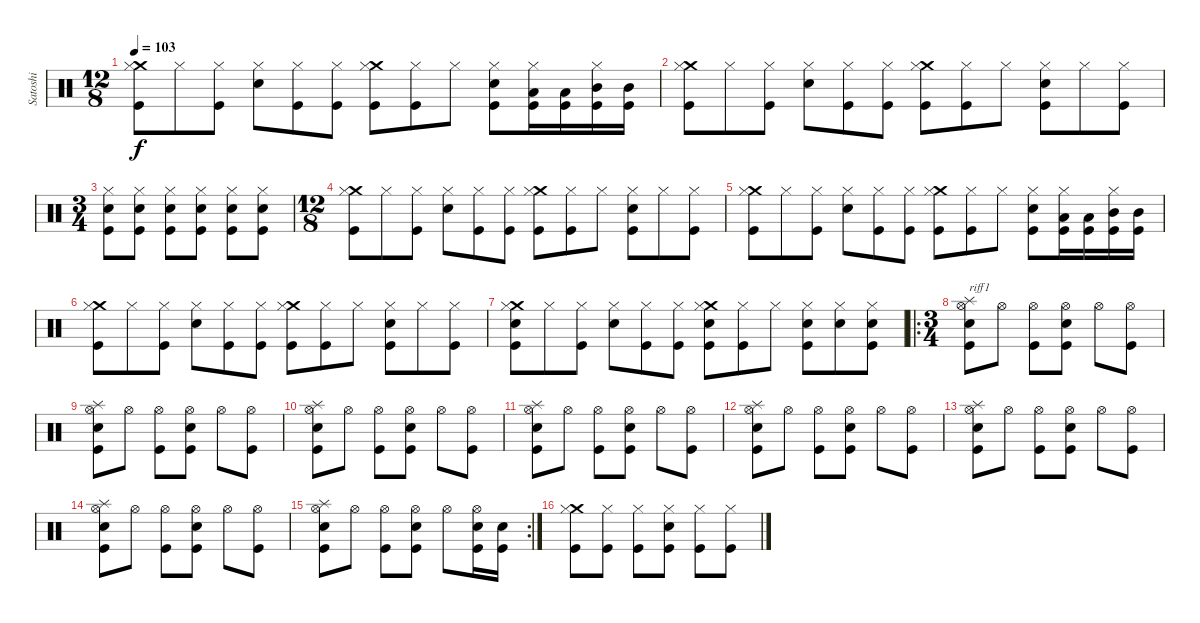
\track ("Satoshi" "Satoshi") {instrument percussion}
\staff {score}
\articulation defaults
\ts (12 8)
\tempo 103
\clef neutral
\ks c
("Crash medium (hit)" "Hi-Hat (closed)" "Kick (hit)").8{dy f} "Hi-Hat (closed)".8 ("Hi-Hat (closed)" "Kick (hit)").8 ("Hi-Hat (closed)" "Electric Snare (hit)").8 ("Hi-Hat (closed)" "Kick (hit)").8 ("Hi-Hat (closed)" "Kick (hit)").8 ("Crash medium (hit)" "Hi-Hat (closed)" "Kick (hit)").8 ("Hi-Hat (closed)" "Kick (hit)").8 "Hi-Hat (closed)".8 ("Hi-Hat (closed)" "Electric Snare (hit)" "Kick (hit)").8 ("Hi-Hat (closed)" "Low Tom (hit)" "Kick (hit)").16 ("Low Tom (hit)" "Kick (hit)").16 ("Hi-Hat (closed)" "Mid Tom (hit)" "Kick (hit)").16 ("Mid Tom (hit)" "Kick (hit)").16 |
("Crash medium (hit)" "Hi-Hat (closed)" "Kick (hit)").8 "Hi-Hat (closed)".8 ("Hi-Hat (closed)" "Kick (hit)").8 ("Hi-Hat (closed)" "Electric Snare (hit)").8 ("Hi-Hat (closed)" "Kick (hit)").8 ("Hi-Hat (closed)" "Kick (hit)").8 ("Crash medium (hit)" "Hi-Hat (closed)" "Kick (hit)").8 ("Hi-Hat (closed)" "Kick (hit)").8 "Hi-Hat (closed)".8 ("Hi-Hat (closed)" "Electric Snare (hit)" "Kick (hit)").8 "Hi-Hat (closed)".8 ("Hi-Hat (closed)" "Kick (hit)").8 |
\ts (3 4)
("Hi-Hat (closed)" "Electric Snare (hit)" "Kick (hit)").8 ("Hi-Hat (closed)" "Electric Snare (hit)" "Kick (hit)").8 ("Hi-Hat (closed)" "Electric Snare (hit)" "Kick (hit)").8 ("Hi-Hat (closed)" "Electric Snare (hit)" "Kick (hit)").8 ("Hi-Hat (closed)" "Electric Snare (hit)" "Kick (hit)").8 ("Hi-Hat (closed)" "Electric Snare (hit)" "Kick (hit)").8 |
\ts (12 8)
("Crash medium (hit)" "Hi-Hat (closed)" "Kick (hit)").8 "Hi-Hat (closed)".8 ("Hi-Hat (closed)" "Kick (hit)").8 ("Hi-Hat (closed)" "Electric Snare (hit)").8 ("Hi-Hat (closed)" "Kick (hit)").8 ("Hi-Hat (closed)" "Kick (hit)").8 ("Crash medium (hit)" "Hi-Hat (closed)" "Kick (hit)").8 ("Hi-Hat (closed)" "Kick (hit)").8 "Hi-Hat (closed)".8 ("Hi-Hat (closed)" "Electric Snare (hit)" "Kick (hit)").8 "Hi-Hat (closed)".8 ("Hi-Hat (closed)" "Kick (hit)").8 |
("Crash medium (hit)" "Hi-Hat (closed)" "Kick (hit)").8 "Hi-Hat (closed)".8 ("Hi-Hat (closed)" "Kick (hit)").8 ("Hi-Hat (closed)" "Electric Snare (hit)").8 ("Hi-Hat (closed)" "Kick (hit)").8 ("Hi-Hat (closed)" "Kick (hit)").8 ("Crash medium (hit)" "Hi-Hat (closed)" "Kick (hit)").8 ("Hi-Hat (closed)" "Kick (hit)").8 "Hi-Hat (closed)".8 ("Hi-Hat (closed)" "Electric Snare (hit)" "Kick (hit)").8 ("Hi-Hat (closed)" "Low Tom (hit)" "Kick (hit)").16 ("Low Tom (hit)" "Kick (hit)").16 ("Hi-Hat (closed)" "Mid Tom (hit)" "Kick (hit)").16 ("Mid Tom (hit)" "Kick (hit)").16 |
("Crash medium (hit)" "Hi-Hat (closed)" "Kick (hit)").8 "Hi-Hat (closed)".8 ("Hi-Hat (closed)" "Kick (hit)").8 ("Hi-Hat (closed)" "Electric Snare (hit)").8 ("Hi-Hat (closed)" "Kick (hit)").8 ("Hi-Hat (closed)" "Kick (hit)").8 ("Crash medium (hit)" "Hi-Hat (closed)" "Kick (hit)").8 ("Hi-Hat (closed)" "Kick (hit)").8 "Hi-Hat (closed)".8 ("Hi-Hat (closed)" "Electric Snare (hit)" "Kick (hit)").8 "Hi-Hat (closed)".8 ("Hi-Hat (closed)" "Kick (hit)").8 |
("Crash medium (hit)" "Hi-Hat (closed)" "Electric Snare (hit)" "Kick (hit)").8 "Hi-Hat (closed)".8 ("Hi-Hat (closed)" "Kick (hit)").8 ("Hi-Hat (closed)" "Electric Snare (hit)").8 ("Hi-Hat (closed)" "Kick (hit)").8 ("Hi-Hat (closed)" "Kick (hit)").8 ("Crash medium (hit)" "Hi-Hat (closed)" "Electric Snare (hit)" "Kick (hit)").8 ("Hi-Hat (closed)" "Kick (hit)").8 "Hi-Hat (closed)".8 ("Hi-Hat (closed)" "Electric Snare (hit)" "Kick (hit)").8 ("Hi-Hat (closed)" "Electric Snare (hit)").8 ("Hi-Hat (closed)" "Electric Snare (hit)" "Kick (hit)").8 |
\ro
\ts (3 4)
("Splash (hit)" "Hi-Hat (open)" "Electric Snare (hit)" "Kick (hit)").8{txt "riff1"} "Hi-Hat (open)".8 ("Hi-Hat (open)" "Kick (hit)").8 ("Hi-Hat (open)" "Electric Snare (hit)" "Kick (hit)").8 "Hi-Hat (open)".8 ("Hi-Hat (open)" "Kick (hit)").8 |
("Splash (hit)" "Hi-Hat (open)" "Electric Snare (hit)" "Kick (hit)").8 "Hi-Hat (open)".8 ("Hi-Hat (open)" "Kick (hit)").8 ("Hi-Hat (open)" "Electric Snare (hit)" "Kick (hit)").8 "Hi-Hat (open)".8 ("Hi-Hat (open)" "Kick (hit)").8 |
("Splash (hit)" "Hi-Hat (open)" "Electric Snare (hit)" "Kick (hit)").8 "Hi-Hat (open)".8 ("Hi-Hat (open)" "Kick (hit)").8 ("Hi-Hat (open)" "Electric Snare (hit)" "Kick (hit)").8 "Hi-Hat (open)".8 ("Hi-Hat (open)" "Kick (hit)").8 |
("Splash (hit)" "Hi-Hat (open)" "Electric Snare (hit)" "Kick (hit)").8 "Hi-Hat (open)".8 ("Hi-Hat (open)" "Kick (hit)").8 ("Hi-Hat (open)" "Electric Snare (hit)" "Kick (hit)").8 "Hi-Hat (open)".8 ("Hi-Hat (open)" "Kick (hit)").8 |
("Splash (hit)" "Hi-Hat (open)" "Electric Snare (hit)" "Kick (hit)").8 "Hi-Hat (open)".8 ("Hi-Hat (open)" "Kick (hit)").8 ("Hi-Hat (open)" "Electric Snare (hit)" "Kick (hit)").8 "Hi-Hat (open)".8 ("Hi-Hat (open)" "Kick (hit)").8 |
("Splash (hit)" "Hi-Hat (open)" "Electric Snare (hit)" "Kick (hit)").8 "Hi-Hat (open)".8 ("Hi-Hat (open)" "Kick (hit)").8 ("Hi-Hat (open)" "Electric Snare (hit)" "Kick (hit)").8 "Hi-Hat (open)".8 ("Hi-Hat (open)" "Kick (hit)").8 |
("Splash (hit)" "Hi-Hat (open)" "Electric Snare (hit)" "Kick (hit)").8 "Hi-Hat (open)".8 ("Hi-Hat (open)" "Kick (hit)").8 ("Hi-Hat (open)" "Electric Snare (hit)" "Kick (hit)").8 "Hi-Hat (open)".8 ("Hi-Hat (open)" "Kick (hit)").8 |
\rc 2
("Splash (hit)" "Hi-Hat (open)" "Electric Snare (hit)" "Kick (hit)").8 "Hi-Hat (open)".8 ("Hi-Hat (open)" "Kick (hit)").8 ("Hi-Hat (open)" "Electric Snare (hit)" "Kick (hit)").8 "Hi-Hat (open)".8 ("Hi-Hat (open)" "Electric Snare (hit)" "Kick (hit)").16 ("Electric Snare (hit)" "Kick (hit)").16 |
("Crash medium (hit)" "Hi-Hat (closed)" "Kick (hit)").8 ("Hi-Hat (closed)" "Kick (hit)").8 ("Hi-Hat (closed)" "Kick (hit)").8 ("Hi-Hat (closed)" "Electric Snare (hit)" "Kick (hit)").8 ("Hi-Hat (closed)" "Kick (hit)").8 ("Hi-Hat (closed)" "Kick (hit)").8
